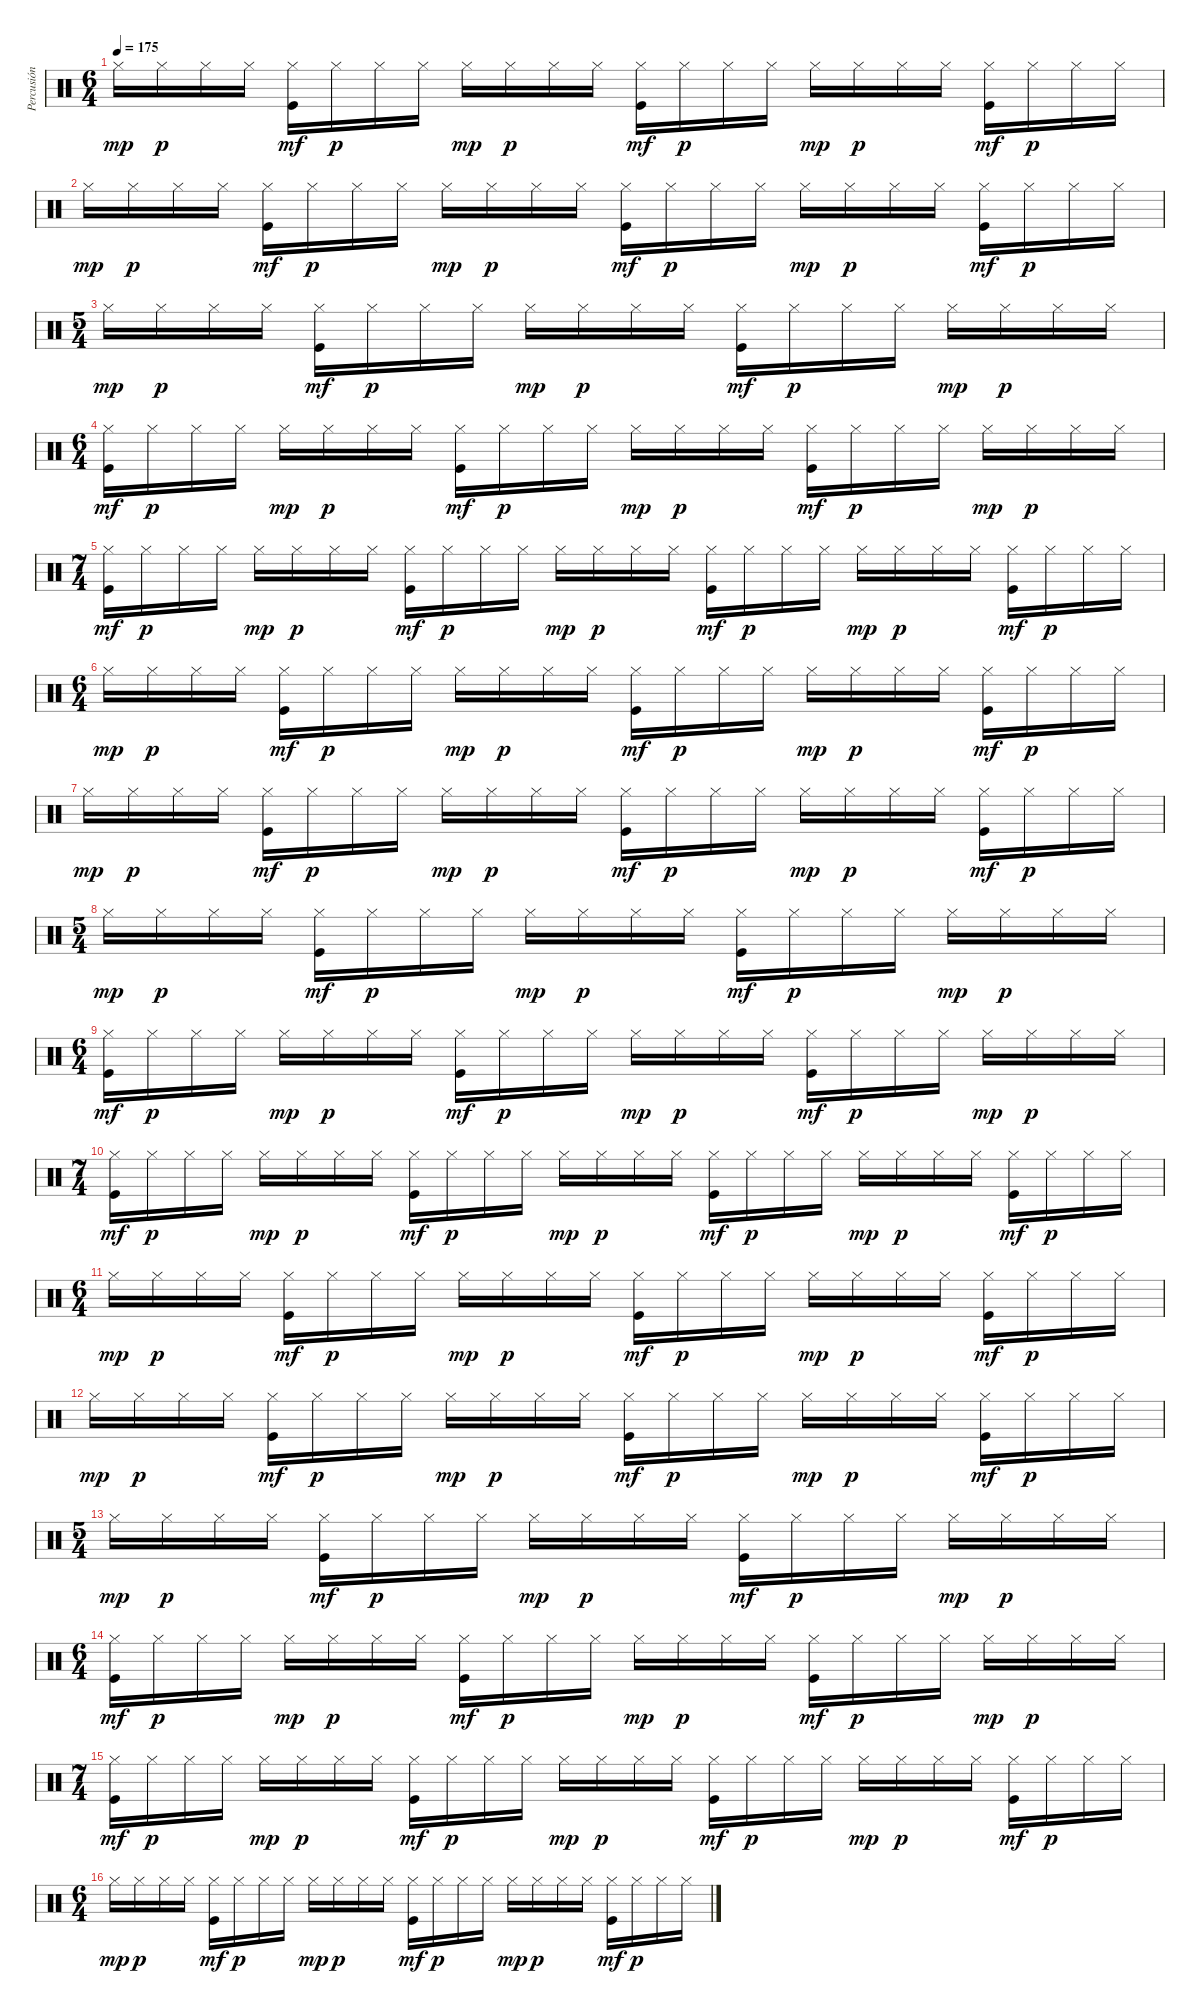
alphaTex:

\track ("Percusión" "Percusión") {instrument percussion}
\staff {score}
\articulation defaults
\ts (6 4)
\tempo 175
\clef neutral
\ks c "Hi-Hat (closed)".16{dy mp} "Hi-Hat (closed)".16{dy p} "Hi-Hat (closed)".16 "Hi-Hat (closed)".16
("Hi-Hat (closed)" "Kick (hit)").16{dy mf} "Hi-Hat (closed)".16{dy p} "Hi-Hat (closed)".16 "Hi-Hat (closed)".16 "Hi-Hat (closed)".16{dy mp} "Hi-Hat (closed)".16{dy p} "Hi-Hat (closed)".16 "Hi-Hat (closed)".16 ("Hi-Hat (closed)" "Kick (hit)").16{dy mf} "Hi-Hat (closed)".16{dy p} "Hi-Hat (closed)".16 "Hi-Hat (closed)".16 "Hi-Hat (closed)".16{dy mp} "Hi-Hat (closed)".16{dy p} "Hi-Hat (closed)".16 "Hi-Hat (closed)".16 ("Hi-Hat (closed)" "Kick (hit)").16{dy mf} "Hi-Hat (closed)".16{dy p} "Hi-Hat (closed)".16 "Hi-Hat (closed)".16 |
"Hi-Hat (closed)".16{dy mp} "Hi-Hat (closed)".16{dy p} "Hi-Hat (closed)".16 "Hi-Hat (closed)".16 ("Hi-Hat (closed)" "Kick (hit)").16{dy mf} "Hi-Hat (closed)".16{dy p} "Hi-Hat (closed)".16 "Hi-Hat (closed)".16 "Hi-Hat (closed)".16{dy mp} "Hi-Hat (closed)".16{dy p} "Hi-Hat (closed)".16 "Hi-Hat (closed)".16 ("Hi-Hat (closed)" "Kick (hit)").16{dy mf} "Hi-Hat (closed)".16{dy p} "Hi-Hat (closed)".16 "Hi-Hat (closed)".16 "Hi-Hat (closed)".16{dy mp} "Hi-Hat (closed)".16{dy p} "Hi-Hat (closed)".16 "Hi-Hat (closed)".16 ("Hi-Hat (closed)" "Kick (hit)").16{dy mf} "Hi-Hat (closed)".16{dy p} "Hi-Hat (closed)".16 "Hi-Hat (closed)".16 |
\ts (5 4)
"Hi-Hat (closed)".16{dy mp} "Hi-Hat (closed)".16{dy p} "Hi-Hat (closed)".16 "Hi-Hat (closed)".16 ("Hi-Hat (closed)" "Kick (hit)").16{dy mf} "Hi-Hat (closed)".16{dy p} "Hi-Hat (closed)".16 "Hi-Hat (closed)".16 "Hi-Hat (closed)".16{dy mp} "Hi-Hat (closed)".16{dy p} "Hi-Hat (closed)".16 "Hi-Hat (closed)".16 ("Hi-Hat (closed)" "Kick (hit)").16{dy mf} "Hi-Hat (closed)".16{dy p} "Hi-Hat (closed)".16 "Hi-Hat (closed)".16 "Hi-Hat (closed)".16{dy mp} "Hi-Hat (closed)".16{dy p} "Hi-Hat (closed)".16 "Hi-Hat (closed)".16 |
\ts (6 4)
("Hi-Hat (closed)" "Kick (hit)").16{dy mf} "Hi-Hat (closed)".16{dy p} "Hi-Hat (closed)".16 "Hi-Hat (closed)".16 "Hi-Hat (closed)".16{dy mp} "Hi-Hat (closed)".16{dy p} "Hi-Hat (closed)".16 "Hi-Hat (closed)".16 ("Hi-Hat (closed)" "Kick (hit)").16{dy mf} "Hi-Hat (closed)".16{dy p} "Hi-Hat (closed)".16 "Hi-Hat (closed)".16 "Hi-Hat (closed)".16{dy mp} "Hi-Hat (closed)".16{dy p} "Hi-Hat (closed)".16 "Hi-Hat (closed)".16 ("Hi-Hat (closed)" "Kick (hit)").16{dy mf} "Hi-Hat (closed)".16{dy p} "Hi-Hat (closed)".16 "Hi-Hat (closed)".16 "Hi-Hat (closed)".16{dy mp} "Hi-Hat (closed)".16{dy p} "Hi-Hat (closed)".16 "Hi-Hat (closed)".16 |
\ts (7 4)
("Hi-Hat (closed)" "Kick (hit)").16{dy mf} "Hi-Hat (closed)".16{dy p} "Hi-Hat (closed)".16 "Hi-Hat (closed)".16 "Hi-Hat (closed)".16{dy mp} "Hi-Hat (closed)".16{dy p} "Hi-Hat (closed)".16 "Hi-Hat (closed)".16 ("Hi-Hat (closed)" "Kick (hit)").16{dy mf} "Hi-Hat (closed)".16{dy p} "Hi-Hat (closed)".16 "Hi-Hat (closed)".16 "Hi-Hat (closed)".16{dy mp} "Hi-Hat (closed)".16{dy p} "Hi-Hat (closed)".16 "Hi-Hat (closed)".16 ("Hi-Hat (closed)" "Kick (hit)").16{dy mf} "Hi-Hat (closed)".16{dy p} "Hi-Hat (closed)".16 "Hi-Hat (closed)".16 "Hi-Hat (closed)".16{dy mp} "Hi-Hat (closed)".16{dy p} "Hi-Hat (closed)".16 "Hi-Hat (closed)".16 ("Hi-Hat (closed)" "Kick (hit)").16{dy mf} "Hi-Hat (closed)".16{dy p} "Hi-Hat (closed)".16 "Hi-Hat (closed)".16 |
\ts (6 4)
"Hi-Hat (closed)".16{dy mp} "Hi-Hat (closed)".16{dy p} "Hi-Hat (closed)".16 "Hi-Hat (closed)".16 ("Hi-Hat (closed)" "Kick (hit)").16{dy mf} "Hi-Hat (closed)".16{dy p} "Hi-Hat (closed)".16 "Hi-Hat (closed)".16 "Hi-Hat (closed)".16{dy mp} "Hi-Hat (closed)".16{dy p} "Hi-Hat (closed)".16 "Hi-Hat (closed)".16 ("Hi-Hat (closed)" "Kick (hit)").16{dy mf} "Hi-Hat (closed)".16{dy p} "Hi-Hat (closed)".16 "Hi-Hat (closed)".16 "Hi-Hat (closed)".16{dy mp} "Hi-Hat (closed)".16{dy p} "Hi-Hat (closed)".16 "Hi-Hat (closed)".16 ("Hi-Hat (closed)" "Kick (hit)").16{dy mf} "Hi-Hat (closed)".16{dy p} "Hi-Hat (closed)".16 "Hi-Hat (closed)".16 |
"Hi-Hat (closed)".16{dy mp} "Hi-Hat (closed)".16{dy p} "Hi-Hat (closed)".16 "Hi-Hat (closed)".16 ("Hi-Hat (closed)" "Kick (hit)").16{dy mf} "Hi-Hat (closed)".16{dy p} "Hi-Hat (closed)".16 "Hi-Hat (closed)".16 "Hi-Hat (closed)".16{dy mp} "Hi-Hat (closed)".16{dy p} "Hi-Hat (closed)".16 "Hi-Hat (closed)".16 ("Hi-Hat (closed)" "Kick (hit)").16{dy mf} "Hi-Hat (closed)".16{dy p} "Hi-Hat (closed)".16 "Hi-Hat (closed)".16 "Hi-Hat (closed)".16{dy mp} "Hi-Hat (closed)".16{dy p} "Hi-Hat (closed)".16 "Hi-Hat (closed)".16 ("Hi-Hat (closed)" "Kick (hit)").16{dy mf} "Hi-Hat (closed)".16{dy p} "Hi-Hat (closed)".16 "Hi-Hat (closed)".16 |
\ts (5 4)
"Hi-Hat (closed)".16{dy mp} "Hi-Hat (closed)".16{dy p} "Hi-Hat (closed)".16 "Hi-Hat (closed)".16 ("Hi-Hat (closed)" "Kick (hit)").16{dy mf} "Hi-Hat (closed)".16{dy p} "Hi-Hat (closed)".16 "Hi-Hat (closed)".16 "Hi-Hat (closed)".16{dy mp} "Hi-Hat (closed)".16{dy p} "Hi-Hat (closed)".16 "Hi-Hat (closed)".16 ("Hi-Hat (closed)" "Kick (hit)").16{dy mf} "Hi-Hat (closed)".16{dy p} "Hi-Hat (closed)".16 "Hi-Hat (closed)".16 "Hi-Hat (closed)".16{dy mp} "Hi-Hat (closed)".16{dy p} "Hi-Hat (closed)".16 "Hi-Hat (closed)".16 |
\ts (6 4)
("Hi-Hat (closed)" "Kick (hit)").16{dy mf} "Hi-Hat (closed)".16{dy p} "Hi-Hat (closed)".16 "Hi-Hat (closed)".16 "Hi-Hat (closed)".16{dy mp} "Hi-Hat (closed)".16{dy p} "Hi-Hat (closed)".16 "Hi-Hat (closed)".16 ("Hi-Hat (closed)" "Kick (hit)").16{dy mf} "Hi-Hat (closed)".16{dy p} "Hi-Hat (closed)".16 "Hi-Hat (closed)".16 "Hi-Hat (closed)".16{dy mp} "Hi-Hat (closed)".16{dy p} "Hi-Hat (closed)".16 "Hi-Hat (closed)".16 ("Hi-Hat (closed)" "Kick (hit)").16{dy mf} "Hi-Hat (closed)".16{dy p} "Hi-Hat (closed)".16 "Hi-Hat (closed)".16 "Hi-Hat (closed)".16{dy mp} "Hi-Hat (closed)".16{dy p} "Hi-Hat (closed)".16 "Hi-Hat (closed)".16 |
\ts (7 4)
("Hi-Hat (closed)" "Kick (hit)").16{dy mf} "Hi-Hat (closed)".16{dy p} "Hi-Hat (closed)".16 "Hi-Hat (closed)".16 "Hi-Hat (closed)".16{dy mp} "Hi-Hat (closed)".16{dy p} "Hi-Hat (closed)".16 "Hi-Hat (closed)".16 ("Hi-Hat (closed)" "Kick (hit)").16{dy mf} "Hi-Hat (closed)".16{dy p} "Hi-Hat (closed)".16 "Hi-Hat (closed)".16 "Hi-Hat (closed)".16{dy mp} "Hi-Hat (closed)".16{dy p} "Hi-Hat (closed)".16 "Hi-Hat (closed)".16 ("Hi-Hat (closed)" "Kick (hit)").16{dy mf} "Hi-Hat (closed)".16{dy p} "Hi-Hat (closed)".16 "Hi-Hat (closed)".16 "Hi-Hat (closed)".16{dy mp} "Hi-Hat (closed)".16{dy p} "Hi-Hat (closed)".16 "Hi-Hat (closed)".16 ("Hi-Hat (closed)" "Kick (hit)").16{dy mf} "Hi-Hat (closed)".16{dy p} "Hi-Hat (closed)".16 "Hi-Hat (closed)".16 |
\ts (6 4)
"Hi-Hat (closed)".16{dy mp} "Hi-Hat (closed)".16{dy p} "Hi-Hat (closed)".16 "Hi-Hat (closed)".16 ("Hi-Hat (closed)" "Kick (hit)").16{dy mf} "Hi-Hat (closed)".16{dy p} "Hi-Hat (closed)".16 "Hi-Hat (closed)".16 "Hi-Hat (closed)".16{dy mp} "Hi-Hat (closed)".16{dy p} "Hi-Hat (closed)".16 "Hi-Hat (closed)".16 ("Hi-Hat (closed)" "Kick (hit)").16{dy mf} "Hi-Hat (closed)".16{dy p} "Hi-Hat (closed)".16 "Hi-Hat (closed)".16 "Hi-Hat (closed)".16{dy mp} "Hi-Hat (closed)".16{dy p} "Hi-Hat (closed)".16 "Hi-Hat (closed)".16 ("Hi-Hat (closed)" "Kick (hit)").16{dy mf} "Hi-Hat (closed)".16{dy p} "Hi-Hat (closed)".16 "Hi-Hat (closed)".16 |
"Hi-Hat (closed)".16{dy mp} "Hi-Hat (closed)".16{dy p} "Hi-Hat (closed)".16 "Hi-Hat (closed)".16 ("Hi-Hat (closed)" "Kick (hit)").16{dy mf} "Hi-Hat (closed)".16{dy p} "Hi-Hat (closed)".16 "Hi-Hat (closed)".16 "Hi-Hat (closed)".16{dy mp} "Hi-Hat (closed)".16{dy p} "Hi-Hat (closed)".16 "Hi-Hat (closed)".16 ("Hi-Hat (closed)" "Kick (hit)").16{dy mf} "Hi-Hat (closed)".16{dy p} "Hi-Hat (closed)".16 "Hi-Hat (closed)".16 "Hi-Hat (closed)".16{dy mp} "Hi-Hat (closed)".16{dy p} "Hi-Hat (closed)".16 "Hi-Hat (closed)".16 ("Hi-Hat (closed)" "Kick (hit)").16{dy mf} "Hi-Hat (closed)".16{dy p} "Hi-Hat (closed)".16 "Hi-Hat (closed)".16 |
\ts (5 4)
"Hi-Hat (closed)".16{dy mp} "Hi-Hat (closed)".16{dy p} "Hi-Hat (closed)".16 "Hi-Hat (closed)".16 ("Hi-Hat (closed)" "Kick (hit)").16{dy mf} "Hi-Hat (closed)".16{dy p} "Hi-Hat (closed)".16 "Hi-Hat (closed)".16 "Hi-Hat (closed)".16{dy mp} "Hi-Hat (closed)".16{dy p} "Hi-Hat (closed)".16 "Hi-Hat (closed)".16 ("Hi-Hat (closed)" "Kick (hit)").16{dy mf} "Hi-Hat (closed)".16{dy p} "Hi-Hat (closed)".16 "Hi-Hat (closed)".16 "Hi-Hat (closed)".16{dy mp} "Hi-Hat (closed)".16{dy p} "Hi-Hat (closed)".16 "Hi-Hat (closed)".16 |
\ts (6 4)
("Hi-Hat (closed)" "Kick (hit)").16{dy mf} "Hi-Hat (closed)".16{dy p} "Hi-Hat (closed)".16 "Hi-Hat (closed)".16 "Hi-Hat (closed)".16{dy mp} "Hi-Hat (closed)".16{dy p} "Hi-Hat (closed)".16 "Hi-Hat (closed)".16 ("Hi-Hat (closed)" "Kick (hit)").16{dy mf} "Hi-Hat (closed)".16{dy p} "Hi-Hat (closed)".16 "Hi-Hat (closed)".16 "Hi-Hat (closed)".16{dy mp} "Hi-Hat (closed)".16{dy p} "Hi-Hat (closed)".16 "Hi-Hat (closed)".16 ("Hi-Hat (closed)" "Kick (hit)").16{dy mf} "Hi-Hat (closed)".16{dy p} "Hi-Hat (closed)".16 "Hi-Hat (closed)".16 "Hi-Hat (closed)".16{dy mp} "Hi-Hat (closed)".16{dy p} "Hi-Hat (closed)".16 "Hi-Hat (closed)".16 |
\ts (7 4)
("Hi-Hat (closed)" "Kick (hit)").16{dy mf} "Hi-Hat (closed)".16{dy p} "Hi-Hat (closed)".16 "Hi-Hat (closed)".16 "Hi-Hat (closed)".16{dy mp} "Hi-Hat (closed)".16{dy p} "Hi-Hat (closed)".16 "Hi-Hat (closed)".16 ("Hi-Hat (closed)" "Kick (hit)").16{dy mf} "Hi-Hat (closed)".16{dy p} "Hi-Hat (closed)".16 "Hi-Hat (closed)".16 "Hi-Hat (closed)".16{dy mp} "Hi-Hat (closed)".16{dy p} "Hi-Hat (closed)".16 "Hi-Hat (closed)".16 ("Hi-Hat (closed)" "Kick (hit)").16{dy mf} "Hi-Hat (closed)".16{dy p} "Hi-Hat (closed)".16 "Hi-Hat (closed)".16 "Hi-Hat (closed)".16{dy mp} "Hi-Hat (closed)".16{dy p} "Hi-Hat (closed)".16 "Hi-Hat (closed)".16 ("Hi-Hat (closed)" "Kick (hit)").16{dy mf} "Hi-Hat (closed)".16{dy p} "Hi-Hat (closed)".16 "Hi-Hat (closed)".16 |
\ts (6 4)
"Hi-Hat (closed)".16{dy mp} "Hi-Hat (closed)".16{dy p} "Hi-Hat (closed)".16 "Hi-Hat (closed)".16 ("Hi-Hat (closed)" "Kick (hit)").16{dy mf} "Hi-Hat (closed)".16{dy p} "Hi-Hat (closed)".16 "Hi-Hat (closed)".16 "Hi-Hat (closed)".16{dy mp} "Hi-Hat (closed)".16{dy p} "Hi-Hat (closed)".16 "Hi-Hat (closed)".16 ("Hi-Hat (closed)" "Kick (hit)").16{dy mf} "Hi-Hat (closed)".16{dy p} "Hi-Hat (closed)".16 "Hi-Hat (closed)".16 "Hi-Hat (closed)".16{dy mp} "Hi-Hat (closed)".16{dy p} "Hi-Hat (closed)".16 "Hi-Hat (closed)".16 ("Hi-Hat (closed)" "Kick (hit)").16{dy mf} "Hi-Hat (closed)".16{dy p} "Hi-Hat (closed)".16 "Hi-Hat (closed)".16
